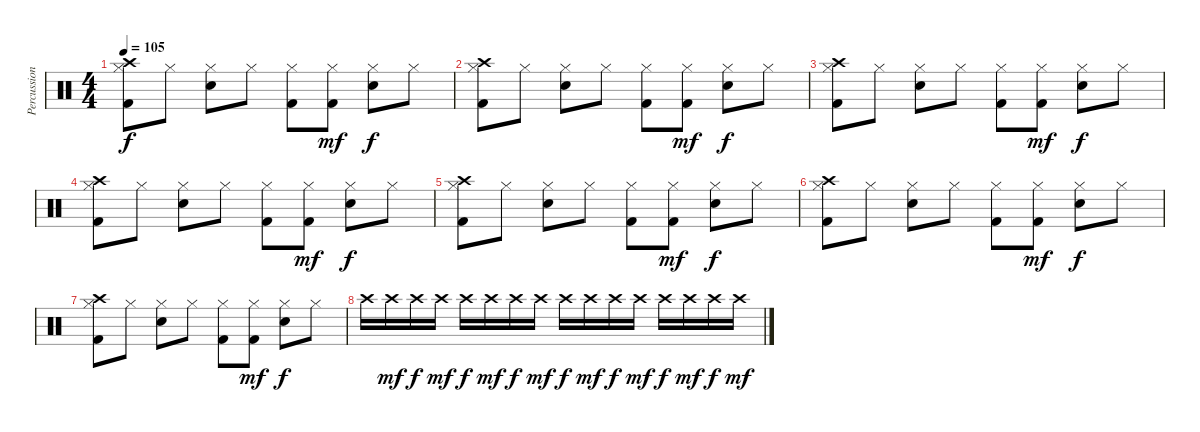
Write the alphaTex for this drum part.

\track ("Percussions" "Percussion") {instrument percussion}
\staff {score}
\articulation defaults
\ts (4 4)
\tempo 105
\clef neutral
\ks c
("Hi-Hat (closed)" "Crash high (hit)" "Kick (hit) 2").8{dy f} "Hi-Hat (closed)".8 ("Hi-Hat (closed)" "Electric Snare (hit)").8 "Hi-Hat (closed)".8 ("Hi-Hat (closed)" "Kick (hit) 2").8 ("Hi-Hat (closed)" "Kick (hit) 2").8{dy mf} ("Hi-Hat (closed)" "Electric Snare (hit)").8{dy f} "Hi-Hat (closed)".8 |
("Hi-Hat (closed)" "Crash high (hit)" "Kick (hit) 2").8 "Hi-Hat (closed)".8 ("Hi-Hat (closed)" "Electric Snare (hit)").8 "Hi-Hat (closed)".8 ("Hi-Hat (closed)" "Kick (hit) 2").8 ("Hi-Hat (closed)" "Kick (hit) 2").8{dy mf} ("Hi-Hat (closed)" "Electric Snare (hit)").8{dy f} "Hi-Hat (closed)".8 |
("Hi-Hat (closed)" "Crash high (hit)" "Kick (hit) 2").8 "Hi-Hat (closed)".8 ("Hi-Hat (closed)" "Electric Snare (hit)").8 "Hi-Hat (closed)".8 ("Hi-Hat (closed)" "Kick (hit) 2").8 ("Hi-Hat (closed)" "Kick (hit) 2").8{dy mf} ("Hi-Hat (closed)" "Electric Snare (hit)").8{dy f} "Hi-Hat (closed)".8 |
("Hi-Hat (closed)" "Crash high (hit)" "Kick (hit) 2").8 "Hi-Hat (closed)".8 ("Hi-Hat (closed)" "Electric Snare (hit)").8 "Hi-Hat (closed)".8 ("Hi-Hat (closed)" "Kick (hit) 2").8 ("Hi-Hat (closed)" "Kick (hit) 2").8{dy mf} ("Hi-Hat (closed)" "Electric Snare (hit)").8{dy f} "Hi-Hat (closed)".8 |
("Hi-Hat (closed)" "Crash high (hit)" "Kick (hit) 2").8 "Hi-Hat (closed)".8 ("Hi-Hat (closed)" "Electric Snare (hit)").8 "Hi-Hat (closed)".8 ("Hi-Hat (closed)" "Kick (hit) 2").8 ("Hi-Hat (closed)" "Kick (hit) 2").8{dy mf} ("Hi-Hat (closed)" "Electric Snare (hit)").8{dy f} "Hi-Hat (closed)".8 |
("Hi-Hat (closed)" "Crash high (hit)" "Kick (hit) 2").8 "Hi-Hat (closed)".8 ("Hi-Hat (closed)" "Electric Snare (hit)").8 "Hi-Hat (closed)".8 ("Hi-Hat (closed)" "Kick (hit) 2").8 ("Hi-Hat (closed)" "Kick (hit) 2").8{dy mf} ("Hi-Hat (closed)" "Electric Snare (hit)").8{dy f} "Hi-Hat (closed)".8 |
("Hi-Hat (closed)" "Crash high (hit)" "Kick (hit) 2").8 "Hi-Hat (closed)".8 ("Hi-Hat (closed)" "Electric Snare (hit)").8 "Hi-Hat (closed)".8 ("Hi-Hat (closed)" "Kick (hit) 2").8 ("Hi-Hat (closed)" "Kick (hit) 2").8{dy mf} ("Hi-Hat (closed)" "Electric Snare (hit)").8{dy f} "Hi-Hat (closed)".8 |
"Crash high (hit)".16 "Crash high (hit)".16{dy mf} "Crash high (hit)".16{dy f} "Crash high (hit)".16{dy mf} "Crash high (hit)".16{dy f} "Crash high (hit)".16{dy mf} "Crash high (hit)".16{dy f} "Crash high (hit)".16{dy mf} "Crash high (hit)".16{dy f} "Crash high (hit)".16{dy mf} "Crash high (hit)".16{dy f} "Crash high (hit)".16{dy mf} "Crash high (hit)".16{dy f} "Crash high (hit)".16{dy mf} "Crash high (hit)".16{dy f} "Crash high (hit)".16{dy mf}
